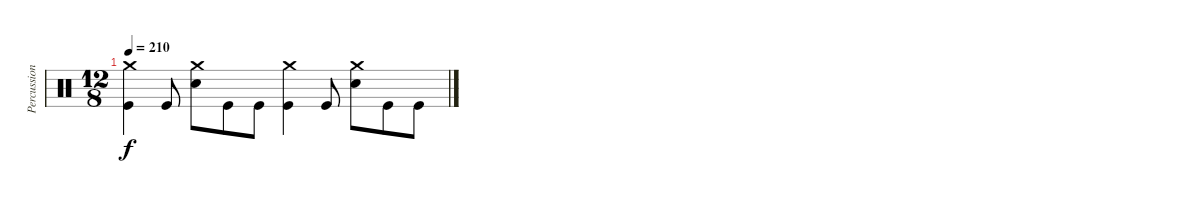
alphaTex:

\track ("Percussion" "Percussion") {instrument percussion}
\staff {score}
\articulation defaults
\ts (12 8)
\tempo 210
\clef neutral
\ks c
("Crash medium (hit)" "Kick (hit)").4{dy f} "Kick (hit)".8 ("Crash medium (hit)" "Snare (hit) 2").8 "Kick (hit)".8 "Kick (hit)".8 ("Crash medium (hit)" "Kick (hit)").4 "Kick (hit)".8 ("Crash medium (hit)" "Snare (hit) 2").8 "Kick (hit)".8 "Kick (hit)".8
